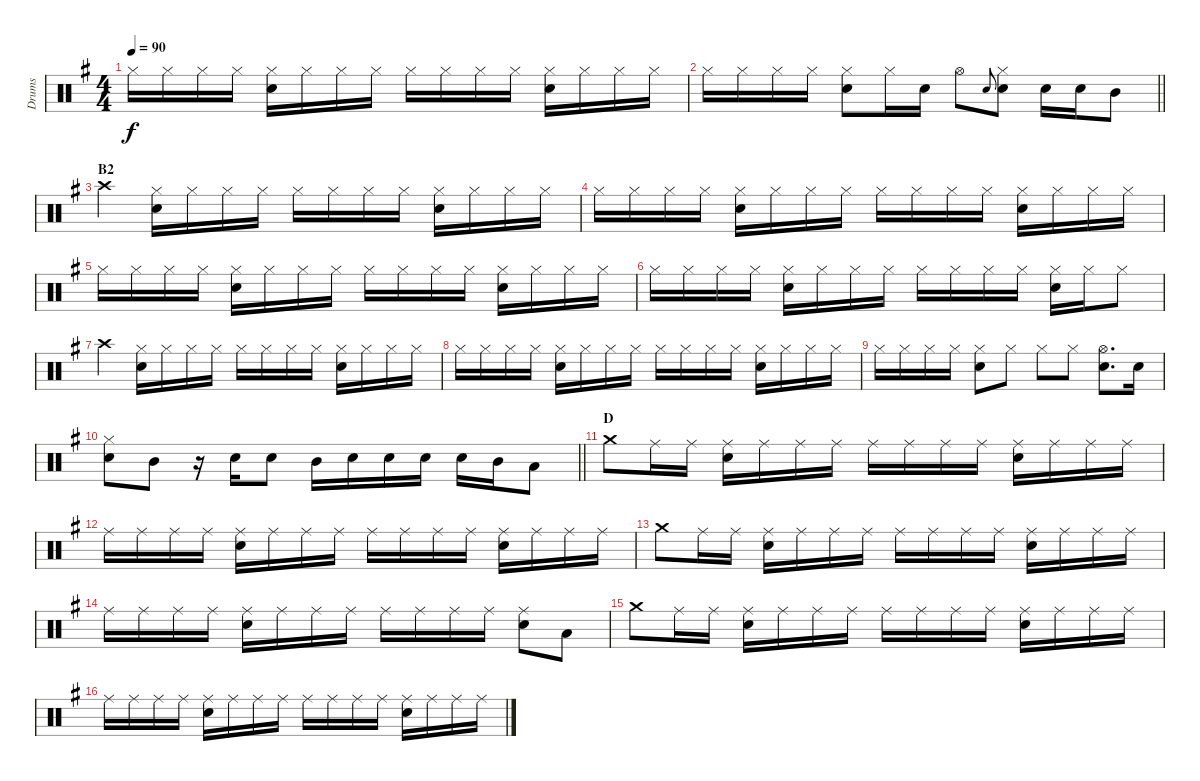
\track ("Drums" "Drums") {instrument percussion}
\staff {score}
\articulation defaults
\ts (4 4)
\tempo 90
\clef neutral
\ks g "Hi-Hat (closed)".16{dy f} "Hi-Hat (closed)".16 "Hi-Hat (closed)".16 "Hi-Hat (closed)".16
("Hi-Hat (closed)" "Snare (hit) 2").16 "Hi-Hat (closed)".16 "Hi-Hat (closed)".16 "Hi-Hat (closed)".16 "Hi-Hat (closed)".16 "Hi-Hat (closed)".16 "Hi-Hat (closed)".16 "Hi-Hat (closed)".16 ("Hi-Hat (closed)" "Snare (hit) 2").16 "Hi-Hat (closed)".16 "Hi-Hat (closed)".16 "Hi-Hat (closed)".16 |
\barLineRight lightlight "Hi-Hat (closed)".16 "Hi-Hat (closed)".16 "Hi-Hat (closed)".16 "Hi-Hat (closed)".16
("Hi-Hat (closed)" "Snare (hit) 2").8 "Hi-Hat (closed)".16 "Snare (hit) 2".16 "Hi-Hat (open)".8 "Snare (hit) 2".8{gr onbeat} ("Hi-Hat (closed)" "Snare (hit) 2").8 "Snare (hit) 2".16 "Snare (hit) 2".16 "Mid Tom (hit)".8 |
\section ("" "B2")
"Crash high (hit)".4 ("Hi-Hat (closed)" "Snare (hit) 2").16 "Hi-Hat (closed)".16 "Hi-Hat (closed)".16 "Hi-Hat (closed)".16 "Hi-Hat (closed)".16 "Hi-Hat (closed)".16 "Hi-Hat (closed)".16 "Hi-Hat (closed)".16 ("Hi-Hat (closed)" "Snare (hit) 2").16 "Hi-Hat (closed)".16 "Hi-Hat (closed)".16 "Hi-Hat (closed)".16 |
"Hi-Hat (closed)".16 "Hi-Hat (closed)".16 "Hi-Hat (closed)".16 "Hi-Hat (closed)".16 ("Hi-Hat (closed)" "Snare (hit) 2").16 "Hi-Hat (closed)".16 "Hi-Hat (closed)".16 "Hi-Hat (closed)".16 "Hi-Hat (closed)".16 "Hi-Hat (closed)".16 "Hi-Hat (closed)".16 "Hi-Hat (closed)".16 ("Hi-Hat (closed)" "Snare (hit) 2").16 "Hi-Hat (closed)".16 "Hi-Hat (closed)".16 "Hi-Hat (closed)".16 |
"Hi-Hat (closed)".16 "Hi-Hat (closed)".16 "Hi-Hat (closed)".16 "Hi-Hat (closed)".16 ("Hi-Hat (closed)" "Snare (hit) 2").16 "Hi-Hat (closed)".16 "Hi-Hat (closed)".16 "Hi-Hat (closed)".16 "Hi-Hat (closed)".16 "Hi-Hat (closed)".16 "Hi-Hat (closed)".16 "Hi-Hat (closed)".16 ("Hi-Hat (closed)" "Snare (hit) 2").16 "Hi-Hat (closed)".16 "Hi-Hat (closed)".16 "Hi-Hat (closed)".16 |
"Hi-Hat (closed)".16 "Hi-Hat (closed)".16 "Hi-Hat (closed)".16 "Hi-Hat (closed)".16 ("Hi-Hat (closed)" "Snare (hit) 2").16 "Hi-Hat (closed)".16 "Hi-Hat (closed)".16 "Hi-Hat (closed)".16 "Hi-Hat (closed)".16 "Hi-Hat (closed)".16 "Hi-Hat (closed)".16 "Hi-Hat (closed)".16 ("Hi-Hat (closed)" "Snare (hit) 2").16 "Hi-Hat (closed)".16 "Hi-Hat (closed)".8 |
"Crash high (hit)".4 ("Hi-Hat (closed)" "Snare (hit) 2").16 "Hi-Hat (closed)".16 "Hi-Hat (closed)".16 "Hi-Hat (closed)".16 "Hi-Hat (closed)".16 "Hi-Hat (closed)".16 "Hi-Hat (closed)".16 "Hi-Hat (closed)".16 ("Hi-Hat (closed)" "Snare (hit) 2").16 "Hi-Hat (closed)".16 "Hi-Hat (closed)".16 "Hi-Hat (closed)".16 |
"Hi-Hat (closed)".16 "Hi-Hat (closed)".16 "Hi-Hat (closed)".16 "Hi-Hat (closed)".16 ("Hi-Hat (closed)" "Snare (hit) 2").16 "Hi-Hat (closed)".16 "Hi-Hat (closed)".16 "Hi-Hat (closed)".16 "Hi-Hat (closed)".16 "Hi-Hat (closed)".16 "Hi-Hat (closed)".16 "Hi-Hat (closed)".16 ("Hi-Hat (closed)" "Snare (hit) 2").16 "Hi-Hat (closed)".16 "Hi-Hat (closed)".16 "Hi-Hat (closed)".16 |
"Hi-Hat (closed)".16 "Hi-Hat (closed)".16 "Hi-Hat (closed)".16 "Hi-Hat (closed)".16 ("Hi-Hat (closed)" "Snare (hit) 2").8 "Hi-Hat (closed)".8 "Hi-Hat (closed)".8 "Hi-Hat (closed)".8 ("Hi-Hat (open)" "Snare (hit) 2").8{d} "Snare (hit) 2".16 |
\barLineRight lightlight
("Hi-Hat (closed)" "Snare (hit) 2").8 "Mid Tom (hit)".8 r.16 "Snare (hit) 2".16 "Snare (hit) 2".8 "Mid Tom (hit)".16 "Snare (hit) 2".16 "Snare (hit) 2".16 "Snare (hit) 2".16 "Snare (hit) 2".16 "Mid Tom (hit)".16 "Low Tom (hit)".8 |
\section ("" "D")
"Crash medium (hit)".8 "Ride (middle)".16 "Ride (middle)".16 ("Ride (middle)" "Snare (hit) 2").16 "Ride (middle)".16 "Ride (middle)".16 "Ride (middle)".16 "Ride (middle)".16 "Ride (middle)".16 "Ride (middle)".16 "Ride (middle)".16 ("Ride (middle)" "Snare (hit) 2").16 "Ride (middle)".16 "Ride (middle)".16 "Ride (middle)".16 |
"Ride (middle)".16 "Ride (middle)".16 "Ride (middle)".16 "Ride (middle)".16 ("Ride (middle)" "Snare (hit) 2").16 "Ride (middle)".16 "Ride (middle)".16 "Ride (middle)".16 "Ride (middle)".16 "Ride (middle)".16 "Ride (middle)".16 "Ride (middle)".16 ("Ride (middle)" "Snare (hit) 2").16 "Ride (middle)".16 "Ride (middle)".16 "Ride (middle)".16 |
"Crash medium (hit)".8 "Ride (middle)".16 "Ride (middle)".16 ("Ride (middle)" "Snare (hit) 2").16 "Ride (middle)".16 "Ride (middle)".16 "Ride (middle)".16 "Ride (middle)".16 "Ride (middle)".16 "Ride (middle)".16 "Ride (middle)".16 ("Ride (middle)" "Snare (hit) 2").16 "Ride (middle)".16 "Ride (middle)".16 "Ride (middle)".16 |
"Ride (middle)".16 "Ride (middle)".16 "Ride (middle)".16 "Ride (middle)".16 ("Ride (middle)" "Snare (hit) 2").16 "Ride (middle)".16 "Ride (middle)".16 "Ride (middle)".16 "Ride (middle)".16 "Ride (middle)".16 "Ride (middle)".16 "Ride (middle)".16 ("Ride (middle)" "Snare (hit) 2").8 "Low Tom (hit)".8 |
"Crash medium (hit)".8 "Ride (middle)".16 "Ride (middle)".16 ("Ride (middle)" "Snare (hit) 2").16 "Ride (middle)".16 "Ride (middle)".16 "Ride (middle)".16 "Ride (middle)".16 "Ride (middle)".16 "Ride (middle)".16 "Ride (middle)".16 ("Ride (middle)" "Snare (hit) 2").16 "Ride (middle)".16 "Ride (middle)".16 "Ride (middle)".16 |
"Ride (middle)".16 "Ride (middle)".16 "Ride (middle)".16 "Ride (middle)".16 ("Ride (middle)" "Snare (hit) 2").16 "Ride (middle)".16 "Ride (middle)".16 "Ride (middle)".16 "Ride (middle)".16 "Ride (middle)".16 "Ride (middle)".16 "Ride (middle)".16 ("Ride (middle)" "Snare (hit) 2").16 "Ride (middle)".16 "Ride (middle)".16 "Ride (middle)".16
